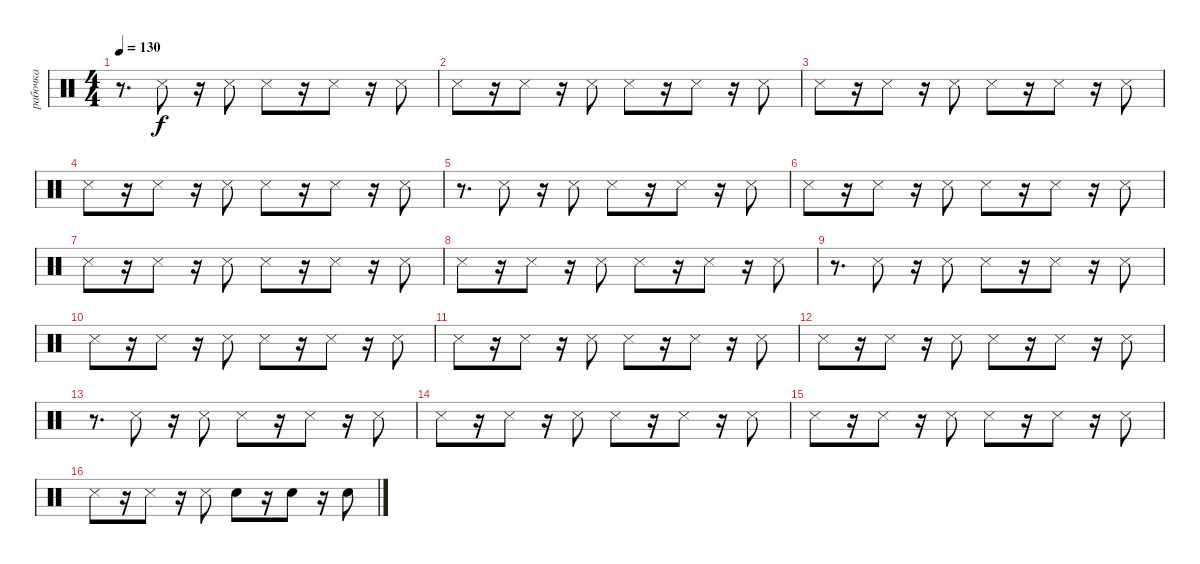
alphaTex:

\track ("рабочка" "рабочка") {instrument percussion}
\staff {score}
\articulation defaults
\ts (4 4)
\tempo 130
\clef neutral
\ks c
r.8{d dy f} "Snare (side stick) 3".8 r.16 "Snare (side stick) 3".8 "Snare (side stick) 3".8 r.16 "Snare (side stick) 3".8 r.16 "Snare (side stick) 3".8 |
"Snare (side stick) 3".8 r.16 "Snare (side stick) 3".8 r.16 "Snare (side stick) 3".8 "Snare (side stick) 3".8 r.16 "Snare (side stick) 3".8 r.16 "Snare (side stick) 3".8 |
"Snare (side stick) 3".8 r.16 "Snare (side stick) 3".8 r.16 "Snare (side stick) 3".8 "Snare (side stick) 3".8 r.16 "Snare (side stick) 3".8 r.16 "Snare (side stick) 3".8 |
"Snare (side stick) 3".8 r.16 "Snare (side stick) 3".8 r.16 "Snare (side stick) 3".8 "Snare (side stick) 3".8 r.16 "Snare (side stick) 3".8 r.16 "Snare (side stick) 3".8 |
r.8{d} "Snare (side stick) 3".8 r.16 "Snare (side stick) 3".8 "Snare (side stick) 3".8 r.16 "Snare (side stick) 3".8 r.16 "Snare (side stick) 3".8 |
"Snare (side stick) 3".8 r.16 "Snare (side stick) 3".8 r.16 "Snare (side stick) 3".8 "Snare (side stick) 3".8 r.16 "Snare (side stick) 3".8 r.16 "Snare (side stick) 3".8 |
"Snare (side stick) 3".8 r.16 "Snare (side stick) 3".8 r.16 "Snare (side stick) 3".8 "Snare (side stick) 3".8 r.16 "Snare (side stick) 3".8 r.16 "Snare (side stick) 3".8 |
"Snare (side stick) 3".8 r.16 "Snare (side stick) 3".8 r.16 "Snare (side stick) 3".8 "Snare (side stick) 3".8 r.16 "Snare (side stick) 3".8 r.16 "Snare (side stick) 3".8 |
r.8{d} "Snare (side stick) 3".8 r.16 "Snare (side stick) 3".8 "Snare (side stick) 3".8 r.16 "Snare (side stick) 3".8 r.16 "Snare (side stick) 3".8 |
"Snare (side stick) 3".8 r.16 "Snare (side stick) 3".8 r.16 "Snare (side stick) 3".8 "Snare (side stick) 3".8 r.16 "Snare (side stick) 3".8 r.16 "Snare (side stick) 3".8 |
"Snare (side stick) 3".8 r.16 "Snare (side stick) 3".8 r.16 "Snare (side stick) 3".8 "Snare (side stick) 3".8 r.16 "Snare (side stick) 3".8 r.16 "Snare (side stick) 3".8 |
"Snare (side stick) 3".8 r.16 "Snare (side stick) 3".8 r.16 "Snare (side stick) 3".8 "Snare (side stick) 3".8 r.16 "Snare (side stick) 3".8 r.16 "Snare (side stick) 3".8 |
r.8{d} "Snare (side stick) 3".8 r.16 "Snare (side stick) 3".8 "Snare (side stick) 3".8 r.16 "Snare (side stick) 3".8 r.16 "Snare (side stick) 3".8 |
"Snare (side stick) 3".8 r.16 "Snare (side stick) 3".8 r.16 "Snare (side stick) 3".8 "Snare (side stick) 3".8 r.16 "Snare (side stick) 3".8 r.16 "Snare (side stick) 3".8 |
"Snare (side stick) 3".8 r.16 "Snare (side stick) 3".8 r.16 "Snare (side stick) 3".8 "Snare (side stick) 3".8 r.16 "Snare (side stick) 3".8 r.16 "Snare (side stick) 3".8 |
"Snare (side stick) 3".8 r.16 "Snare (side stick) 3".8 r.16 "Snare (side stick) 3".8 "Snare (hit) 2".8 r.16 "Snare (hit) 2".8 r.16 "Snare (hit) 2".8
